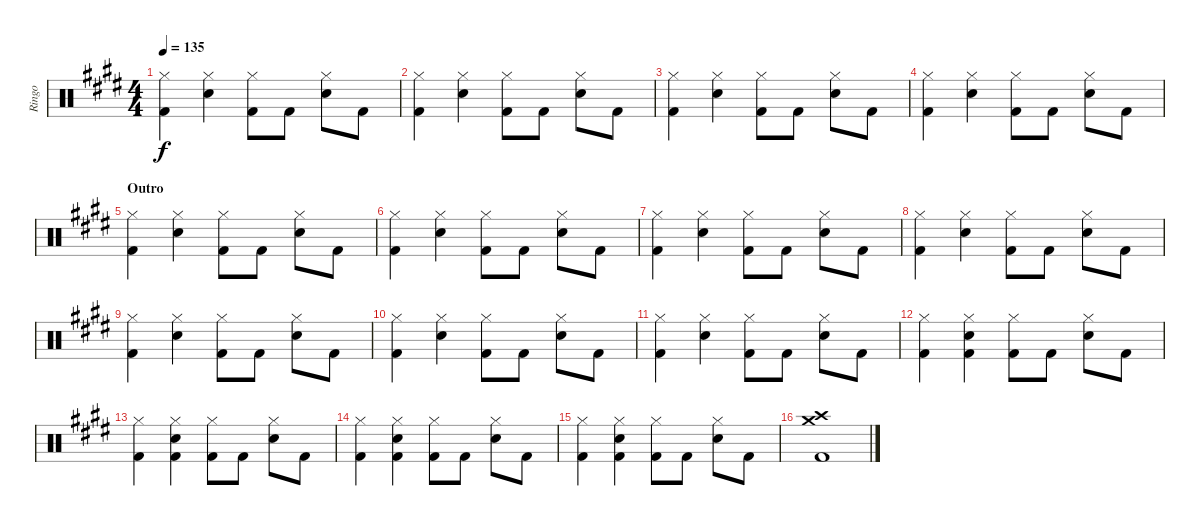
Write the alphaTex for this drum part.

\track ("Ringo" "Ringo") {instrument percussion}
\staff {score}
\articulation defaults
\ts (4 4)
\tempo 135
\clef neutral
\ks e
("Hi-Hat (closed)" "Kick (hit) 2").4{dy f} ("Hi-Hat (closed)" "Snare (hit) 2").4 ("Hi-Hat (closed)" "Kick (hit) 2").8 "Kick (hit) 2".8 ("Hi-Hat (closed)" "Snare (hit) 2").8 "Kick (hit) 2".8 |
("Hi-Hat (closed)" "Kick (hit) 2").4 ("Hi-Hat (closed)" "Snare (hit) 2").4 ("Hi-Hat (closed)" "Kick (hit) 2").8 "Kick (hit) 2".8 ("Hi-Hat (closed)" "Snare (hit) 2").8 "Kick (hit) 2".8 |
("Hi-Hat (closed)" "Kick (hit) 2").4 ("Hi-Hat (closed)" "Snare (hit) 2").4 ("Hi-Hat (closed)" "Kick (hit) 2").8 "Kick (hit) 2".8 ("Hi-Hat (closed)" "Snare (hit) 2").8 "Kick (hit) 2".8 |
("Hi-Hat (closed)" "Kick (hit) 2").4 ("Hi-Hat (closed)" "Snare (hit) 2").4 ("Hi-Hat (closed)" "Kick (hit) 2").8 "Kick (hit) 2".8 ("Hi-Hat (closed)" "Snare (hit) 2").8 "Kick (hit) 2".8 |
\section ("" "Outro")
("Hi-Hat (closed)" "Kick (hit) 2").4 ("Hi-Hat (closed)" "Snare (hit) 2").4 ("Hi-Hat (closed)" "Kick (hit) 2").8 "Kick (hit) 2".8 ("Hi-Hat (closed)" "Snare (hit) 2").8 "Kick (hit) 2".8 |
("Hi-Hat (closed)" "Kick (hit) 2").4 ("Hi-Hat (closed)" "Snare (hit) 2").4 ("Hi-Hat (closed)" "Kick (hit) 2").8 "Kick (hit) 2".8 ("Hi-Hat (closed)" "Snare (hit) 2").8 "Kick (hit) 2".8 |
("Hi-Hat (closed)" "Kick (hit) 2").4 ("Hi-Hat (closed)" "Snare (hit) 2").4 ("Hi-Hat (closed)" "Kick (hit) 2").8 "Kick (hit) 2".8 ("Hi-Hat (closed)" "Snare (hit) 2").8 "Kick (hit) 2".8 |
("Hi-Hat (closed)" "Kick (hit) 2").4 ("Hi-Hat (closed)" "Snare (hit) 2").4 ("Hi-Hat (closed)" "Kick (hit) 2").8 "Kick (hit) 2".8 ("Hi-Hat (closed)" "Snare (hit) 2").8 "Kick (hit) 2".8 |
("Hi-Hat (closed)" "Kick (hit) 2").4 ("Hi-Hat (closed)" "Snare (hit) 2").4 ("Hi-Hat (closed)" "Kick (hit) 2").8 "Kick (hit) 2".8 ("Hi-Hat (closed)" "Snare (hit) 2").8 "Kick (hit) 2".8 |
("Hi-Hat (closed)" "Kick (hit) 2").4 ("Hi-Hat (closed)" "Snare (hit) 2").4 ("Hi-Hat (closed)" "Kick (hit) 2").8 "Kick (hit) 2".8 ("Hi-Hat (closed)" "Snare (hit) 2").8 "Kick (hit) 2".8 |
("Hi-Hat (closed)" "Kick (hit) 2").4 ("Hi-Hat (closed)" "Snare (hit) 2").4 ("Hi-Hat (closed)" "Kick (hit) 2").8 "Kick (hit) 2".8 ("Hi-Hat (closed)" "Snare (hit) 2").8 "Kick (hit) 2".8 |
("Hi-Hat (closed)" "Kick (hit) 2").4 ("Hi-Hat (closed)" "Snare (hit) 2" "Kick (hit) 2").4 ("Hi-Hat (closed)" "Kick (hit) 2").8 "Kick (hit) 2".8 ("Hi-Hat (closed)" "Snare (hit) 2").8 "Kick (hit) 2".8 |
("Hi-Hat (closed)" "Kick (hit) 2").4 ("Hi-Hat (closed)" "Snare (hit) 2" "Kick (hit) 2").4 ("Hi-Hat (closed)" "Kick (hit) 2").8 "Kick (hit) 2".8 ("Hi-Hat (closed)" "Snare (hit) 2").8 "Kick (hit) 2".8 |
("Hi-Hat (closed)" "Kick (hit) 2").4 ("Hi-Hat (closed)" "Snare (hit) 2" "Kick (hit) 2").4 ("Hi-Hat (closed)" "Kick (hit) 2").8 "Kick (hit) 2".8 ("Hi-Hat (closed)" "Snare (hit) 2").8 "Kick (hit) 2".8 |
("Hi-Hat (closed)" "Kick (hit) 2").4 ("Hi-Hat (closed)" "Snare (hit) 2" "Kick (hit) 2").4 ("Hi-Hat (closed)" "Kick (hit) 2").8 "Kick (hit) 2".8 ("Hi-Hat (closed)" "Snare (hit) 2").8 "Kick (hit) 2".8 |
("Crash medium (hit)" "Crash high (hit)" "Kick (hit) 2").1
